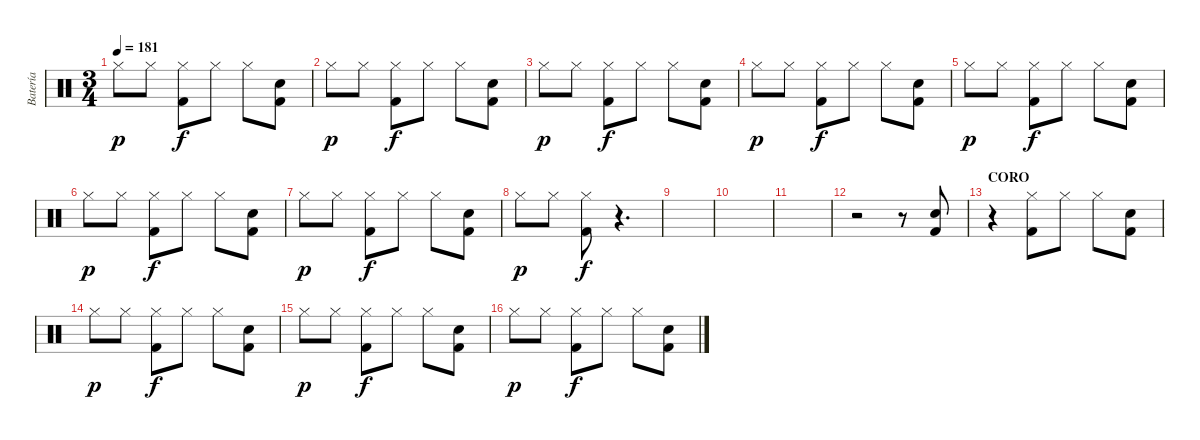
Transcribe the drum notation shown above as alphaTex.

\track ("Batería" "Batería") {instrument percussion}
\staff {score}
\articulation defaults
\ts (3 4)
\tempo 181
\clef neutral
\ks c "Hi-Hat (closed)".8{dy p} "Hi-Hat (closed)".8
("Hi-Hat (closed)" "Kick (hit) 2").8{dy f} "Hi-Hat (closed)".8 "Hi-Hat (closed)".8 ("Electric Snare (hit)" "Kick (hit) 2").8 |
"Hi-Hat (closed)".8{dy p} "Hi-Hat (closed)".8 ("Hi-Hat (closed)" "Kick (hit) 2").8{dy f} "Hi-Hat (closed)".8 "Hi-Hat (closed)".8 ("Electric Snare (hit)" "Kick (hit) 2").8 |
"Hi-Hat (closed)".8{dy p} "Hi-Hat (closed)".8 ("Hi-Hat (closed)" "Kick (hit) 2").8{dy f} "Hi-Hat (closed)".8 "Hi-Hat (closed)".8 ("Electric Snare (hit)" "Kick (hit) 2").8 |
"Hi-Hat (closed)".8{dy p} "Hi-Hat (closed)".8 ("Hi-Hat (closed)" "Kick (hit) 2").8{dy f} "Hi-Hat (closed)".8 "Hi-Hat (closed)".8 ("Electric Snare (hit)" "Kick (hit) 2").8 |
"Hi-Hat (closed)".8{dy p} "Hi-Hat (closed)".8 ("Hi-Hat (closed)" "Kick (hit) 2").8{dy f} "Hi-Hat (closed)".8 "Hi-Hat (closed)".8 ("Electric Snare (hit)" "Kick (hit) 2").8 |
"Hi-Hat (closed)".8{dy p} "Hi-Hat (closed)".8 ("Hi-Hat (closed)" "Kick (hit) 2").8{dy f} "Hi-Hat (closed)".8 "Hi-Hat (closed)".8 ("Electric Snare (hit)" "Kick (hit) 2").8 |
"Hi-Hat (closed)".8{dy p} "Hi-Hat (closed)".8 ("Hi-Hat (closed)" "Kick (hit) 2").8{dy f} "Hi-Hat (closed)".8 "Hi-Hat (closed)".8 ("Electric Snare (hit)" "Kick (hit) 2").8 |
"Hi-Hat (closed)".8{dy p} "Hi-Hat (closed)".8 ("Hi-Hat (closed)" "Kick (hit) 2").8{dy f} r.4{d} |
|
|
|
r.2 r.8 ("Electric Snare (hit)" "Kick (hit) 2").8 |
\section ("" "CORO")
r.4 ("Hi-Hat (closed)" "Kick (hit) 2").8 "Hi-Hat (closed)".8 "Hi-Hat (closed)".8 ("Electric Snare (hit)" "Kick (hit) 2").8 |
"Hi-Hat (closed)".8{dy p} "Hi-Hat (closed)".8 ("Hi-Hat (closed)" "Kick (hit) 2").8{dy f} "Hi-Hat (closed)".8 "Hi-Hat (closed)".8 ("Electric Snare (hit)" "Kick (hit) 2").8 |
"Hi-Hat (closed)".8{dy p} "Hi-Hat (closed)".8 ("Hi-Hat (closed)" "Kick (hit) 2").8{dy f} "Hi-Hat (closed)".8 "Hi-Hat (closed)".8 ("Electric Snare (hit)" "Kick (hit) 2").8 |
"Hi-Hat (closed)".8{dy p} "Hi-Hat (closed)".8 ("Hi-Hat (closed)" "Kick (hit) 2").8{dy f} "Hi-Hat (closed)".8 "Hi-Hat (closed)".8 ("Electric Snare (hit)" "Kick (hit) 2").8
